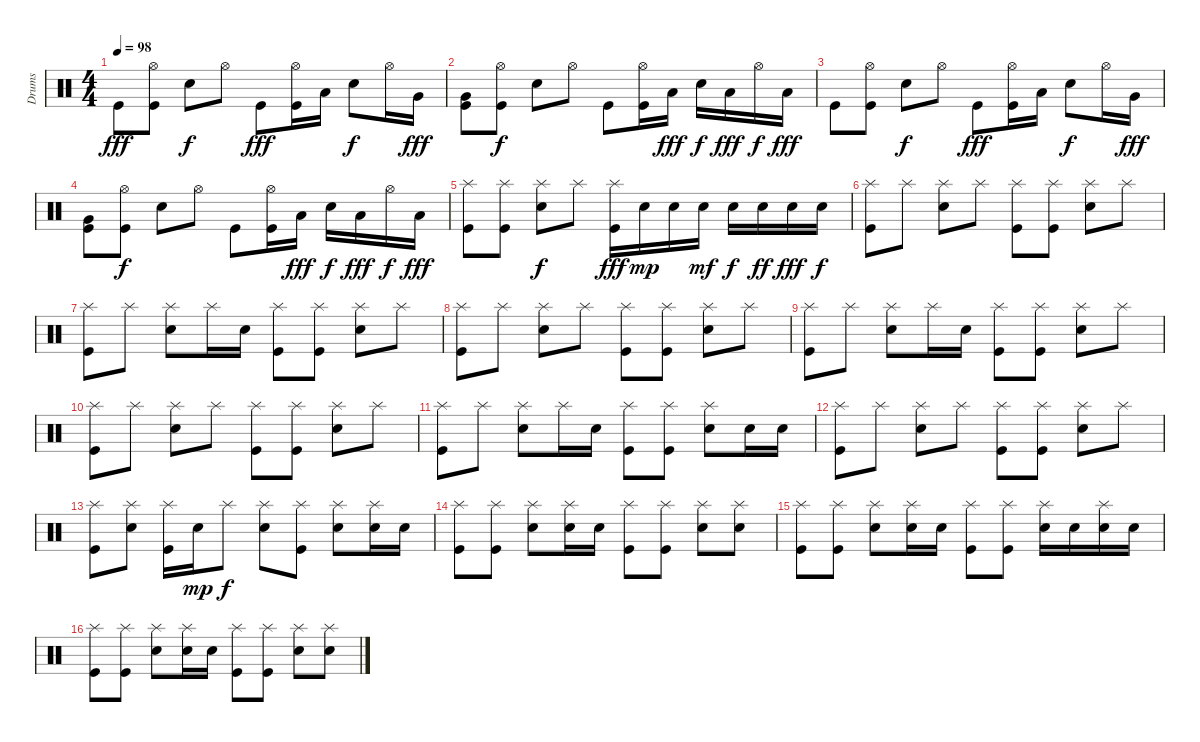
\track ("Drums" "Drums") {instrument percussion}
\staff {score}
\articulation defaults
\ts (4 4)
\tempo 98
\clef neutral
\ks c "Kick (hit)".8{dy fff}
("Hi-Hat (open)" "Kick (hit)").8 "Snare (hit) 2".8{dy f} "Hi-Hat (open)".8 "Kick (hit)".8{dy fff} ("Hi-Hat (open)" "Kick (hit)").16 "Low Tom (hit)".16 "Snare (hit) 2".8{dy f} "Hi-Hat (open)".16 "Very Low Tom (hit)".16{dy fff} |
("Very Low Tom (hit)" "Kick (hit)").8 ("Hi-Hat (open)" "Kick (hit)").8{dy f} "Snare (hit) 2".8 "Hi-Hat (open)".8 "Kick (hit)".8 ("Hi-Hat (open)" "Kick (hit)").16 "Low Tom (hit)".16{dy fff} "Snare (hit) 2".16{dy f} "Low Tom (hit)".16{dy fff} "Hi-Hat (open)".16{dy f} "Low Tom (hit)".16{dy fff} |
"Kick (hit)".8 ("Hi-Hat (open)" "Kick (hit)").8 "Snare (hit) 2".8{dy f} "Hi-Hat (open)".8 "Kick (hit)".8{dy fff} ("Hi-Hat (open)" "Kick (hit)").16 "Low Tom (hit)".16 "Snare (hit) 2".8{dy f} "Hi-Hat (open)".16 "Very Low Tom (hit)".16{dy fff} |
("Very Low Tom (hit)" "Kick (hit)").8 ("Hi-Hat (open)" "Kick (hit)").8{dy f} "Snare (hit) 2".8 "Hi-Hat (open)".8 "Kick (hit)".8 ("Hi-Hat (open)" "Kick (hit)").16 "Low Tom (hit)".16{dy fff} "Snare (hit) 2".16{dy f} "Low Tom (hit)".16{dy fff} "Hi-Hat (open)".16{dy f} "Low Tom (hit)".16{dy fff} |
("Splash (hit)" "Kick (hit)").8 ("Splash (hit)" "Kick (hit)").8 ("Splash (hit)" "Snare (hit) 2").8{dy f} "Splash (hit)".8 ("Splash (hit)" "Kick (hit)").16{dy fff} "Snare (hit) 2".16{dy mp} "Snare (hit) 2".16 "Snare (hit) 2".16{dy mf} "Snare (hit) 2".16{dy f} "Snare (hit) 2".16{dy ff} "Snare (hit) 2".16{dy fff} "Snare (hit) 2".16{dy f} |
("Splash (hit)" "Kick (hit)").8 "Splash (hit)".8 ("Splash (hit)" "Snare (hit) 2").8 "Splash (hit)".8 ("Splash (hit)" "Kick (hit)").8 ("Splash (hit)" "Kick (hit)").8 ("Splash (hit)" "Snare (hit) 2").8 "Splash (hit)".8 |
("Splash (hit)" "Kick (hit)").8 "Splash (hit)".8 ("Splash (hit)" "Snare (hit) 2").8 "Splash (hit)".16 "Snare (hit) 2".16 ("Splash (hit)" "Kick (hit)").8 ("Splash (hit)" "Kick (hit)").8 ("Splash (hit)" "Snare (hit) 2").8 "Splash (hit)".8 |
("Splash (hit)" "Kick (hit)").8 "Splash (hit)".8 ("Splash (hit)" "Snare (hit) 2").8 "Splash (hit)".8 ("Splash (hit)" "Kick (hit)").8 ("Splash (hit)" "Kick (hit)").8 ("Splash (hit)" "Snare (hit) 2").8 "Splash (hit)".8 |
("Splash (hit)" "Kick (hit)").8 "Splash (hit)".8 ("Splash (hit)" "Snare (hit) 2").8 "Splash (hit)".16 "Snare (hit) 2".16 ("Splash (hit)" "Kick (hit)").8 ("Splash (hit)" "Kick (hit)").8 ("Splash (hit)" "Snare (hit) 2").8 "Splash (hit)".8 |
("Splash (hit)" "Kick (hit)").8 "Splash (hit)".8 ("Splash (hit)" "Snare (hit) 2").8 "Splash (hit)".8 ("Splash (hit)" "Kick (hit)").8 ("Splash (hit)" "Kick (hit)").8 ("Splash (hit)" "Snare (hit) 2").8 "Splash (hit)".8 |
("Splash (hit)" "Kick (hit)").8 "Splash (hit)".8 ("Splash (hit)" "Snare (hit) 2").8 "Splash (hit)".16 "Snare (hit) 2".16 ("Splash (hit)" "Kick (hit)").8 ("Splash (hit)" "Kick (hit)").8 ("Splash (hit)" "Snare (hit) 2").8 "Snare (hit) 2".16 "Snare (hit) 2".16 |
("Splash (hit)" "Kick (hit)").8 "Splash (hit)".8 ("Splash (hit)" "Snare (hit) 2").8 "Splash (hit)".8 ("Splash (hit)" "Kick (hit)").8 ("Splash (hit)" "Kick (hit)").8 ("Splash (hit)" "Snare (hit) 2").8 "Splash (hit)".8 |
("Splash (hit)" "Kick (hit)").8 ("Splash (hit)" "Snare (hit) 2").8 ("Splash (hit)" "Kick (hit)").16 "Snare (hit) 2".16{dy mp} "Splash (hit)".8{dy f} ("Splash (hit)" "Snare (hit) 2").8 ("Splash (hit)" "Kick (hit)").8 ("Splash (hit)" "Snare (hit) 2").8 ("Splash (hit)" "Snare (hit) 2").16 "Snare (hit) 2".16 |
("Splash (hit)" "Kick (hit)").8 ("Splash (hit)" "Kick (hit)").8 ("Splash (hit)" "Snare (hit) 2").8 ("Splash (hit)" "Snare (hit) 2").16 "Snare (hit) 2".16 ("Splash (hit)" "Kick (hit)").8 ("Splash (hit)" "Kick (hit)").8 ("Splash (hit)" "Snare (hit) 2").8 ("Splash (hit)" "Snare (hit) 2").8 |
("Splash (hit)" "Kick (hit)").8 ("Splash (hit)" "Kick (hit)").8 ("Splash (hit)" "Snare (hit) 2").8 ("Splash (hit)" "Snare (hit) 2").16 "Snare (hit) 2".16 ("Splash (hit)" "Kick (hit)").8 ("Splash (hit)" "Kick (hit)").8 ("Splash (hit)" "Snare (hit) 2").16 "Snare (hit) 2".16 ("Splash (hit)" "Snare (hit) 2").16 "Snare (hit) 2".16 |
("Splash (hit)" "Kick (hit)").8 ("Splash (hit)" "Kick (hit)").8 ("Splash (hit)" "Snare (hit) 2").8 ("Splash (hit)" "Snare (hit) 2").16 "Snare (hit) 2".16 ("Splash (hit)" "Kick (hit)").8 ("Splash (hit)" "Kick (hit)").8 ("Splash (hit)" "Snare (hit) 2").8 ("Splash (hit)" "Snare (hit) 2").8
